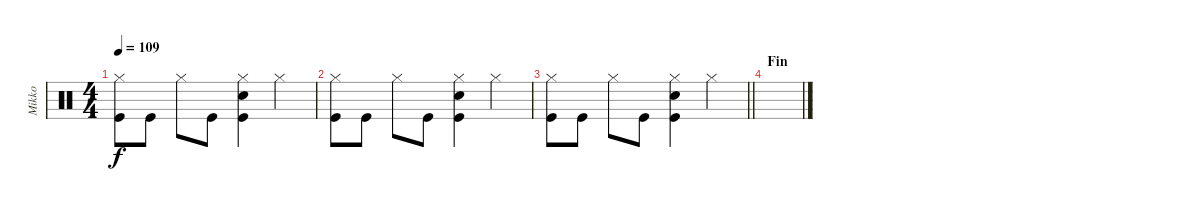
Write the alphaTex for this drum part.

\track ("Mikko" "Mikko") {instrument percussion}
\staff {score}
\articulation defaults
\ts (4 4)
\tempo 109
\clef neutral
\ks c
("Hi-Hat (closed)" "Kick (hit)").8{dy f} "Kick (hit)".8 "Hi-Hat (closed)".8 "Kick (hit)".8 ("Hi-Hat (closed)" "Snare (hit) 2" "Kick (hit)").4 "Hi-Hat (closed)".4 |
("Hi-Hat (closed)" "Kick (hit)").8 "Kick (hit)".8 "Hi-Hat (closed)".8 "Kick (hit)".8 ("Hi-Hat (closed)" "Snare (hit) 2" "Kick (hit)").4 "Hi-Hat (closed)".4 |
\barLineRight lightlight
("Hi-Hat (closed)" "Kick (hit)").8 "Kick (hit)".8 "Hi-Hat (closed)".8 "Kick (hit)".8 ("Hi-Hat (closed)" "Snare (hit) 2" "Kick (hit)").4 "Hi-Hat (closed)".4 |
\section ("" "Fin")
